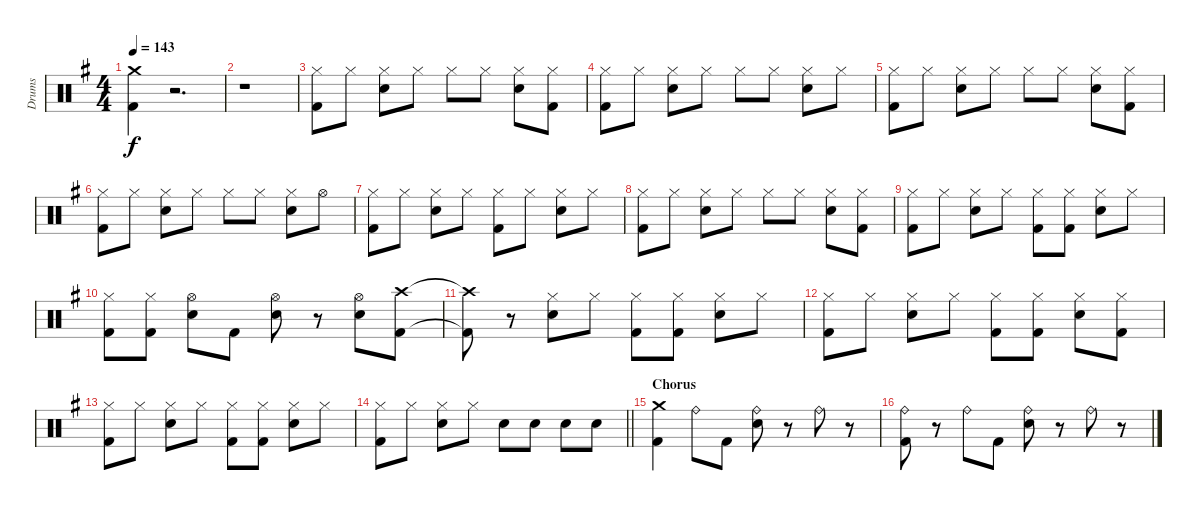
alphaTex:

\track ("Drums" "Drums") {instrument percussion}
\staff {score}
\articulation defaults
\ts (4 4)
\tempo 143
\clef neutral
\ks g
("Crash medium (hit)" "Kick (hit) 2").4{dy f} r.2{d} |
r.1 |
("Hi-Hat (closed)" "Kick (hit) 2").8 "Hi-Hat (closed)".8 ("Hi-Hat (closed)" "Electric Snare (hit)").8 "Hi-Hat (closed)".8 "Hi-Hat (closed)".8 "Hi-Hat (closed)".8 ("Hi-Hat (closed)" "Electric Snare (hit)").8 ("Hi-Hat (closed)" "Kick (hit) 2").8 |
("Hi-Hat (closed)" "Kick (hit) 2").8 "Hi-Hat (closed)".8 ("Hi-Hat (closed)" "Electric Snare (hit)").8 "Hi-Hat (closed)".8 "Hi-Hat (closed)".8 "Hi-Hat (closed)".8 ("Hi-Hat (closed)" "Electric Snare (hit)").8 "Hi-Hat (closed)".8 |
("Hi-Hat (closed)" "Kick (hit) 2").8 "Hi-Hat (closed)".8 ("Hi-Hat (closed)" "Electric Snare (hit)").8 "Hi-Hat (closed)".8 "Hi-Hat (closed)".8 "Hi-Hat (closed)".8 ("Hi-Hat (closed)" "Electric Snare (hit)").8 ("Hi-Hat (closed)" "Kick (hit) 2").8 |
("Hi-Hat (closed)" "Kick (hit) 2").8 "Hi-Hat (closed)".8 ("Hi-Hat (closed)" "Electric Snare (hit)").8 "Hi-Hat (closed)".8 "Hi-Hat (closed)".8 "Hi-Hat (closed)".8 ("Hi-Hat (closed)" "Electric Snare (hit)").8 "Hi-Hat (open)".8 |
("Hi-Hat (closed)" "Kick (hit) 2").8 "Hi-Hat (closed)".8 ("Hi-Hat (closed)" "Electric Snare (hit)").8 "Hi-Hat (closed)".8 ("Hi-Hat (closed)" "Kick (hit) 2").8 "Hi-Hat (closed)".8 ("Hi-Hat (closed)" "Electric Snare (hit)").8 "Hi-Hat (closed)".8 |
("Hi-Hat (closed)" "Kick (hit) 2").8 "Hi-Hat (closed)".8 ("Hi-Hat (closed)" "Electric Snare (hit)").8 "Hi-Hat (closed)".8 "Hi-Hat (closed)".8 "Hi-Hat (closed)".8 ("Hi-Hat (closed)" "Electric Snare (hit)").8 ("Hi-Hat (closed)" "Kick (hit) 2").8 |
("Hi-Hat (closed)" "Kick (hit) 2").8 "Hi-Hat (closed)".8 ("Hi-Hat (closed)" "Electric Snare (hit)").8 "Hi-Hat (closed)".8 ("Hi-Hat (closed)" "Kick (hit) 2").8 ("Hi-Hat (closed)" "Kick (hit) 2").8 ("Hi-Hat (closed)" "Electric Snare (hit)").8 "Hi-Hat (closed)".8 |
("Hi-Hat (closed)" "Kick (hit) 2").8 ("Hi-Hat (closed)" "Kick (hit) 2").8 ("Hi-Hat (open)" "Electric Snare (hit)").8 "Kick (hit) 2".8 ("Hi-Hat (open)" "Electric Snare (hit)").8 r.8 ("Hi-Hat (open)" "Electric Snare (hit)").8 ("Crash high (hit)" "Kick (hit) 2").8 |
("Crash high (hit)"{t} "Kick (hit) 2"{t}).8 r.8 ("Hi-Hat (closed)" "Electric Snare (hit)").8 "Hi-Hat (closed)".8 ("Hi-Hat (closed)" "Kick (hit) 2").8 ("Hi-Hat (closed)" "Kick (hit) 2").8 ("Hi-Hat (closed)" "Electric Snare (hit)").8 "Hi-Hat (closed)".8 |
("Hi-Hat (closed)" "Kick (hit) 2").8 "Hi-Hat (closed)".8 ("Hi-Hat (closed)" "Electric Snare (hit)").8 "Hi-Hat (closed)".8 ("Hi-Hat (closed)" "Kick (hit) 2").8 ("Hi-Hat (closed)" "Kick (hit) 2").8 ("Hi-Hat (closed)" "Electric Snare (hit)").8 ("Hi-Hat (closed)" "Kick (hit) 2").8 |
("Hi-Hat (closed)" "Kick (hit) 2").8 "Hi-Hat (closed)".8 ("Hi-Hat (closed)" "Electric Snare (hit)").8 "Hi-Hat (closed)".8 ("Hi-Hat (closed)" "Kick (hit) 2").8 ("Hi-Hat (closed)" "Kick (hit) 2").8 ("Hi-Hat (closed)" "Electric Snare (hit)").8 "Hi-Hat (closed)".8 |
\barLineRight lightlight
("Hi-Hat (closed)" "Kick (hit) 2").8 "Hi-Hat (closed)".8 ("Hi-Hat (closed)" "Electric Snare (hit)").8 "Hi-Hat (closed)".8 "Electric Snare (hit)".8 "Electric Snare (hit)".8 "Electric Snare (hit)".8 "Electric Snare (hit)".8 |
\section ("" "Chorus")
("Crash medium (hit)" "Kick (hit) 2").4 "Ride (bell)".8 "Kick (hit) 2".8 ("Ride (bell)" "Electric Snare (hit)").8 r.8 "Ride (bell)".8 r.8 |
("Ride (bell)" "Kick (hit) 2").8 r.8 "Ride (bell)".8 "Kick (hit) 2".8 ("Ride (bell)" "Electric Snare (hit)").8 r.8 "Ride (bell)".8 r.8
